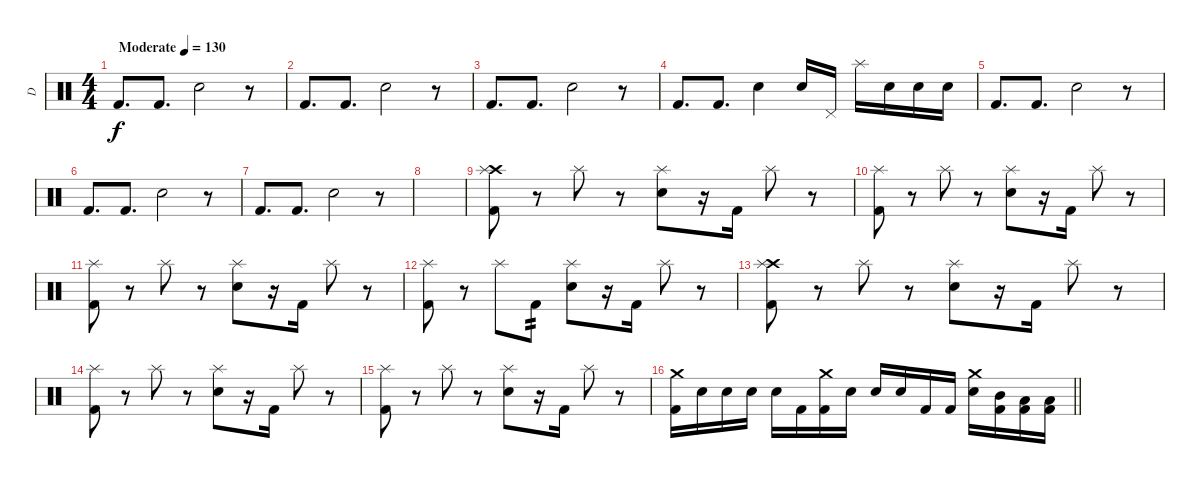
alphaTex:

\track ("D" "D") {instrument percussion}
\staff {score}
\articulation defaults
\ts (4 4)
\tempo (130 "Moderate")
\clef neutral
\ks c "Kick (hit) 2".8{d dy f} "Kick (hit) 2".8{d} "Electric Snare (hit)".2
r.8 |
"Kick (hit) 2".8{d} "Kick (hit) 2".8{d} "Electric Snare (hit)".2 r.8 |
"Kick (hit) 2".8{d} "Kick (hit) 2".8{d} "Electric Snare (hit)".2 r.8 |
"Kick (hit) 2".8{d} "Kick (hit) 2".8{d} "Electric Snare (hit)".4 "Electric Snare (hit)".16 "Pedal Hi-Hat (hit)".16 "Splash (hit)".16 "Electric Snare (hit)".16 "Electric Snare (hit)".16 "Electric Snare (hit)".16 |
"Kick (hit) 2".8{d} "Kick (hit) 2".8{d} "Electric Snare (hit)".2 r.8 |
"Kick (hit) 2".8{d} "Kick (hit) 2".8{d} "Electric Snare (hit)".2 r.8 |
"Kick (hit) 2".8{d} "Kick (hit) 2".8{d} "Electric Snare (hit)".2 r.8 |
|
("Crash high (hit)" "Kick (hit) 2" "Splash (hit)").8 r.8 "Splash (hit)".8 r.8 ("Electric Snare (hit)" "Splash (hit)").8 r.16 "Kick (hit) 2".16 "Splash (hit)".8 r.8 |
("Kick (hit) 2" "Splash (hit)").8 r.8 "Splash (hit)".8 r.8 ("Electric Snare (hit)" "Splash (hit)").8 r.16 "Kick (hit) 2".16 "Splash (hit)".8 r.8 |
("Kick (hit) 2" "Splash (hit)").8 r.8 "Splash (hit)".8 r.8 ("Electric Snare (hit)" "Splash (hit)").8 r.16 "Kick (hit) 2".16 "Splash (hit)".8 r.8 |
("Kick (hit) 2" "Splash (hit)").8 r.8 "Splash (hit)".8 "Kick (hit) 2".8{tp 2} ("Electric Snare (hit)" "Splash (hit)").8 r.16 "Kick (hit) 2".16 "Splash (hit)".8 r.8 |
("Crash high (hit)" "Kick (hit) 2" "Splash (hit)").8 r.8 "Splash (hit)".8 r.8 ("Electric Snare (hit)" "Splash (hit)").8 r.16 "Kick (hit) 2".16 "Splash (hit)".8 r.8 |
("Kick (hit) 2" "Splash (hit)").8 r.8 "Splash (hit)".8 r.8 ("Electric Snare (hit)" "Splash (hit)").8 r.16 "Kick (hit) 2".16 "Splash (hit)".8 r.8 |
("Kick (hit) 2" "Splash (hit)").8 r.8 "Splash (hit)".8 r.8 ("Electric Snare (hit)" "Splash (hit)").8 r.16 "Kick (hit) 2".16 "Splash (hit)".8 r.8 |
\barLineRight lightlight
("Crash medium (hit)" "Kick (hit) 2").16 "Electric Snare (hit)".16 "Electric Snare (hit)".16 "Electric Snare (hit)".16 "Electric Snare (hit)".16 "Kick (hit) 2".16 ("Crash medium (hit)" "Kick (hit) 2").16 "Electric Snare (hit)".16 "Electric Snare (hit)".16 "Electric Snare (hit)".16 "Kick (hit) 2".16 "Kick (hit) 2".16 ("Crash medium (hit)" "Electric Snare (hit)").16 ("Mid Tom (hit)" "Kick (hit) 2").16 ("Low Tom (hit)" "Kick (hit) 2").16 ("Low Floor Tom (hit)" "Kick (hit) 2").16
